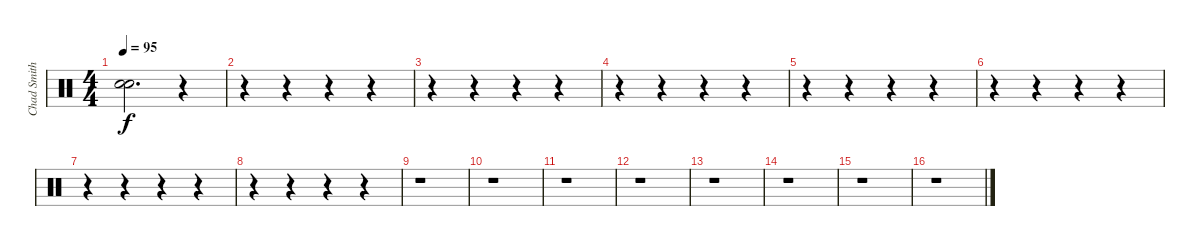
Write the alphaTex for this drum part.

\track ("Chad Smith" "Chad Smith") {instrument percussion}
\staff {score}
\articulation defaults
\ts (4 4)
\tempo 95
\clef neutral
\ks c
("Snare (hit)"{t} "Snare (hit)"{t}).2{d dy f} r.4 |
r.4 r.4 r.4 r.4 |
r.4 r.4 r.4 r.4 |
r.4 r.4 r.4 r.4 |
r.4 r.4 r.4 r.4 |
r.4 r.4 r.4 r.4 |
r.4 r.4 r.4 r.4 |
r.4 r.4 r.4 r.4 |
r.1 |
r.1 |
r.1 |
r.1 |
r.1 |
r.1 |
r.1 |
r.1
